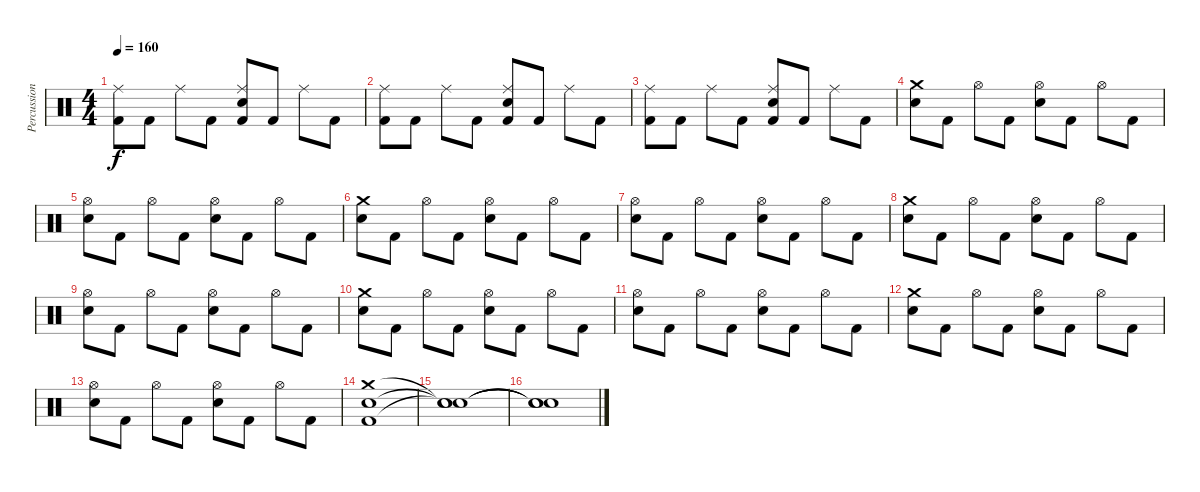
\track ("Percussion" "Percussion") {instrument percussion}
\staff {score}
\articulation defaults
\ts (4 4)
\tempo 160
\clef neutral
\ks c
("Kick (hit) 2" "Ride (middle)").8{dy f} "Kick (hit) 2".8 "Ride (middle)".8 "Kick (hit) 2".8 ("Kick (hit) 2" "Snare (hit) 2" "Ride (middle)").8 "Kick (hit) 2".8 "Ride (middle)".8 "Kick (hit) 2".8 |
("Kick (hit) 2" "Ride (middle)").8 "Kick (hit) 2".8 "Ride (middle)".8 "Kick (hit) 2".8 ("Kick (hit) 2" "Snare (hit) 2" "Ride (middle)").8 "Kick (hit) 2".8 "Ride (middle)".8 "Kick (hit) 2".8 |
("Kick (hit) 2" "Ride (middle)").8 "Kick (hit) 2".8 "Ride (middle)".8 "Kick (hit) 2".8 ("Kick (hit) 2" "Snare (hit) 2" "Ride (middle)").8 "Kick (hit) 2".8 "Ride (middle)".8 "Kick (hit) 2".8 |
("Snare (hit) 2" "Crash medium (hit)").8 "Kick (hit) 2".8 "Hi-Hat (open)".8 "Kick (hit) 2".8 ("Snare (hit) 2" "Hi-Hat (open)").8 "Kick (hit) 2".8 "Hi-Hat (open)".8 "Kick (hit) 2".8 |
("Snare (hit) 2" "Hi-Hat (open)").8 "Kick (hit) 2".8 "Hi-Hat (open)".8 "Kick (hit) 2".8 ("Snare (hit) 2" "Hi-Hat (open)").8 "Kick (hit) 2".8 "Hi-Hat (open)".8 "Kick (hit) 2".8 |
("Snare (hit) 2" "Crash medium (hit)").8 "Kick (hit) 2".8 "Hi-Hat (open)".8 "Kick (hit) 2".8 ("Snare (hit) 2" "Hi-Hat (open)").8 "Kick (hit) 2".8 "Hi-Hat (open)".8 "Kick (hit) 2".8 |
("Snare (hit) 2" "Hi-Hat (open)").8 "Kick (hit) 2".8 "Hi-Hat (open)".8 "Kick (hit) 2".8 ("Snare (hit) 2" "Hi-Hat (open)").8 "Kick (hit) 2".8 "Hi-Hat (open)".8 "Kick (hit) 2".8 |
("Snare (hit) 2" "Crash medium (hit)").8 "Kick (hit) 2".8 "Hi-Hat (open)".8 "Kick (hit) 2".8 ("Snare (hit) 2" "Hi-Hat (open)").8 "Kick (hit) 2".8 "Hi-Hat (open)".8 "Kick (hit) 2".8 |
("Snare (hit) 2" "Hi-Hat (open)").8 "Kick (hit) 2".8 "Hi-Hat (open)".8 "Kick (hit) 2".8 ("Snare (hit) 2" "Hi-Hat (open)").8 "Kick (hit) 2".8 "Hi-Hat (open)".8 "Kick (hit) 2".8 |
("Snare (hit) 2" "Crash medium (hit)").8 "Kick (hit) 2".8 "Hi-Hat (open)".8 "Kick (hit) 2".8 ("Snare (hit) 2" "Hi-Hat (open)").8 "Kick (hit) 2".8 "Hi-Hat (open)".8 "Kick (hit) 2".8 |
("Snare (hit) 2" "Hi-Hat (open)").8 "Kick (hit) 2".8 "Hi-Hat (open)".8 "Kick (hit) 2".8 ("Snare (hit) 2" "Hi-Hat (open)").8 "Kick (hit) 2".8 "Hi-Hat (open)".8 "Kick (hit) 2".8 |
("Snare (hit) 2" "Crash medium (hit)").8 "Kick (hit) 2".8 "Hi-Hat (open)".8 "Kick (hit) 2".8 ("Snare (hit) 2" "Hi-Hat (open)").8 "Kick (hit) 2".8 "Hi-Hat (open)".8 "Kick (hit) 2".8 |
("Snare (hit) 2" "Hi-Hat (open)").8 "Kick (hit) 2".8 "Hi-Hat (open)".8 "Kick (hit) 2".8 ("Snare (hit) 2" "Hi-Hat (open)").8 "Kick (hit) 2".8 "Hi-Hat (open)".8 "Kick (hit) 2".8 |
("Kick (hit) 2" "Snare (hit) 2" "Crash medium (hit)").1 |
("Snare (hit)"{t} "Snare (hit)"{t} "Snare (hit)"{t}).1 |
("Snare (hit)"{t} "Snare (hit)"{t} "Snare (hit)"{t}).1
